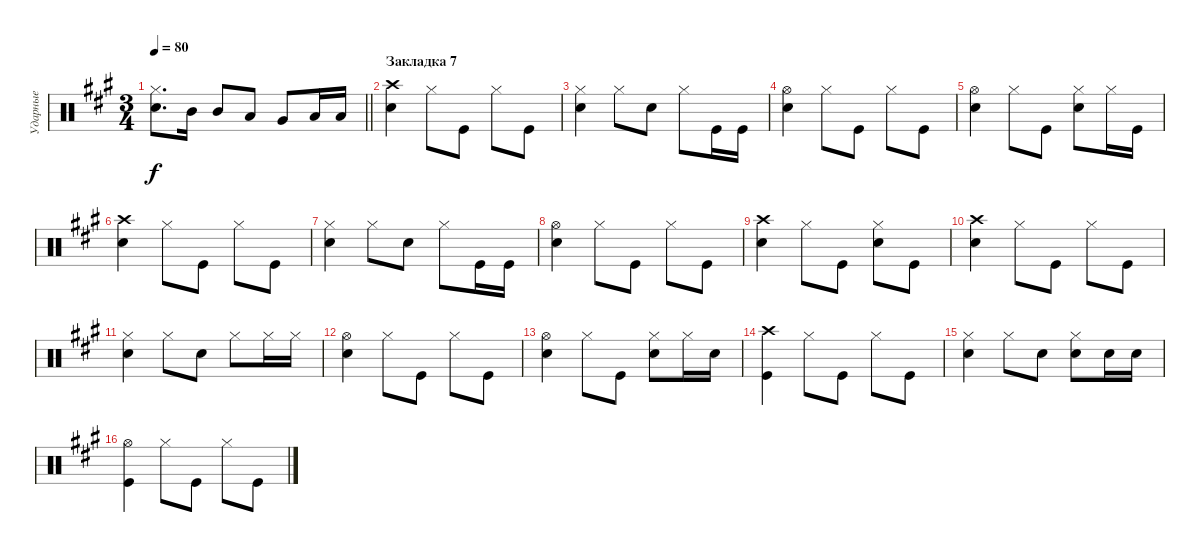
\track ("Ударные" "Ударные") {instrument percussion}
\staff {score}
\articulation defaults
\ts (3 4)
\tempo 80
\clef neutral
\barLineRight lightlight
\ks f#minor
("Snare (hit) 2" "Hi-Hat (closed)").8{d dy f} "Mid Tom (hit)".16 "Mid Tom (hit)".8 "Low Tom (hit)".8 "Very Low Tom (hit)".8 "Low Floor Tom (hit)".16 "Low Floor Tom (hit)".16 |
\section ("" "Закладка 7")
("Snare (hit) 2" "Crash high (hit)").4 "Hi-Hat (closed)".8 "Kick (hit)".8 "Hi-Hat (closed)".8 "Kick (hit)".8 |
("Snare (hit) 2" "Hi-Hat (closed)").4 "Hi-Hat (closed)".8 "Snare (hit) 2".8 "Hi-Hat (closed)".8 "Kick (hit)".16 "Kick (hit)".16 |
("Snare (hit) 2" "Hi-Hat (open)").4 "Hi-Hat (closed)".8 "Kick (hit)".8 "Hi-Hat (closed)".8 "Kick (hit)".8 |
("Snare (hit) 2" "Hi-Hat (open)").4 "Hi-Hat (closed)".8 "Kick (hit)".8 ("Snare (hit) 2" "Hi-Hat (closed)").8 "Hi-Hat (closed)".16 "Kick (hit)".16 |
("Snare (hit) 2" "Crash high (hit)").4 "Hi-Hat (closed)".8 "Kick (hit)".8 "Hi-Hat (closed)".8 "Kick (hit)".8 |
("Snare (hit) 2" "Hi-Hat (closed)").4 "Hi-Hat (closed)".8 "Snare (hit) 2".8 "Hi-Hat (closed)".8 "Kick (hit)".16 "Kick (hit)".16 |
("Snare (hit) 2" "Hi-Hat (open)").4 "Hi-Hat (closed)".8 "Kick (hit)".8 "Hi-Hat (closed)".8 "Kick (hit)".8 |
("Snare (hit) 2" "Crash high (hit)").4 "Hi-Hat (closed)".8 "Kick (hit)".8 ("Snare (hit) 2" "Hi-Hat (closed)").8 "Kick (hit)".8 |
("Snare (hit) 2" "Crash high (hit)").4 "Hi-Hat (closed)".8 "Kick (hit)".8 "Hi-Hat (closed)".8 "Kick (hit)".8 |
("Snare (hit) 2" "Hi-Hat (closed)").4 "Hi-Hat (closed)".8 "Snare (hit) 2".8 "Hi-Hat (closed)".8 "Hi-Hat (closed)".16 "Hi-Hat (closed)".16 |
("Snare (hit) 2" "Hi-Hat (open)").4 "Hi-Hat (closed)".8 "Kick (hit)".8 "Hi-Hat (closed)".8 "Kick (hit)".8 |
("Snare (hit) 2" "Hi-Hat (open)").4 "Hi-Hat (closed)".8 "Kick (hit)".8 ("Snare (hit) 2" "Hi-Hat (closed)").8 "Hi-Hat (closed)".16 "Snare (hit) 2".16 |
("Kick (hit)" "Crash high (hit)").4 "Hi-Hat (closed)".8 "Kick (hit)".8 "Hi-Hat (closed)".8 "Kick (hit)".8 |
("Snare (hit) 2" "Hi-Hat (closed)").4 "Hi-Hat (closed)".8 "Snare (hit) 2".8 ("Snare (hit) 2" "Hi-Hat (closed)").8 "Snare (hit) 2".16 "Snare (hit) 2".16 |
("Kick (hit)" "Hi-Hat (open)").4 "Hi-Hat (closed)".8 "Kick (hit)".8 "Hi-Hat (closed)".8 "Kick (hit)".8
